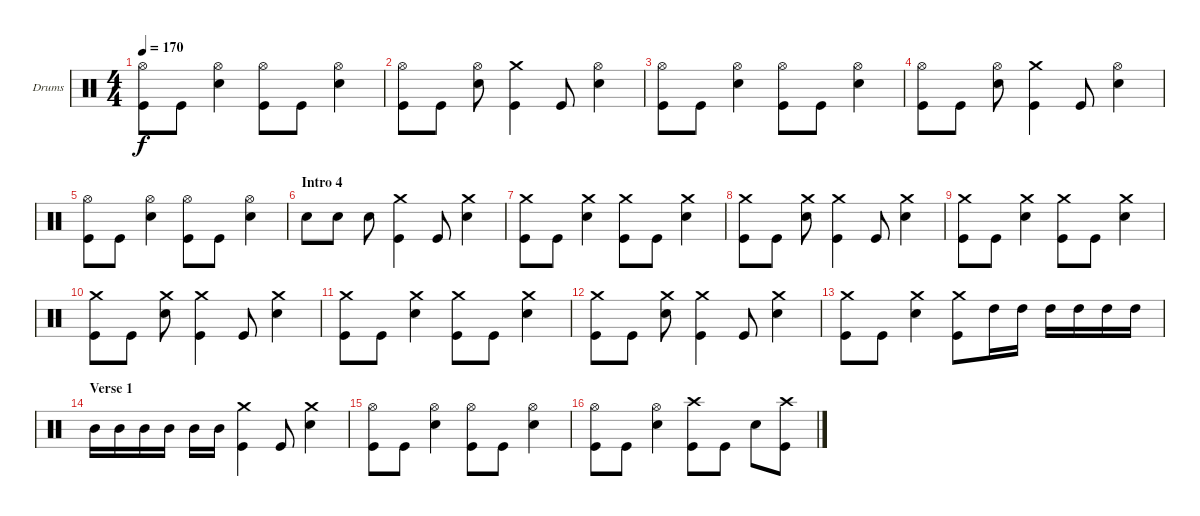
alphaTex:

\defaultSystemsLayout 4
\bracketExtendMode groupsimilarinstruments
\firstSystemTrackNameOrientation horizontal
\otherSystemsTrackNameOrientation horizontal
\track ("Jimmy \"The Hammer\" - Drums" "Drums") {instrument percussion}
\staff {score}
\articulation defaults
\ts (4 4)
\tempo 170
\clef neutral
\ks c
("Hi-Hat (open)" "Kick (hit)").8{dy f} "Kick (hit)".8 ("Snare (hit) 2" "Hi-Hat (open)").4 ("Hi-Hat (open)" "Kick (hit)").8 "Kick (hit)".8 ("Snare (hit) 2" "Hi-Hat (open)").4 |
("Hi-Hat (open)" "Kick (hit)").8 "Kick (hit)".8 ("Snare (hit) 2" "Hi-Hat (open)").8 ("Kick (hit)" "Crash medium (hit)").4 "Kick (hit)".8 ("Snare (hit) 2" "Hi-Hat (open)").4 |
("Hi-Hat (open)" "Kick (hit)").8 "Kick (hit)".8 ("Snare (hit) 2" "Hi-Hat (open)").4 ("Hi-Hat (open)" "Kick (hit)").8 "Kick (hit)".8 ("Snare (hit) 2" "Hi-Hat (open)").4 |
("Hi-Hat (open)" "Kick (hit)").8 "Kick (hit)".8 ("Snare (hit) 2" "Hi-Hat (open)").8 ("Kick (hit)" "Crash medium (hit)").4 "Kick (hit)".8 ("Snare (hit) 2" "Hi-Hat (open)").4 |
("Hi-Hat (open)" "Kick (hit)").8 "Kick (hit)".8 ("Snare (hit) 2" "Hi-Hat (open)").4 ("Hi-Hat (open)" "Kick (hit)").8 "Kick (hit)".8 ("Snare (hit) 2" "Hi-Hat (open)").4 |
\section ("" "Intro 4")
"Snare (hit) 2".8 "Snare (hit) 2".8 "Snare (hit) 2".8 ("Kick (hit)" "Crash medium (hit)").4 "Kick (hit)".8 ("Snare (hit) 2" "Crash medium (hit)").4 |
("Kick (hit)" "Crash medium (hit)").8 "Kick (hit)".8 ("Snare (hit) 2" "Crash medium (hit)").4 ("Kick (hit)" "Crash medium (hit)").8 "Kick (hit)".8 ("Snare (hit) 2" "Crash medium (hit)").4 |
("Kick (hit)" "Crash medium (hit)").8 "Kick (hit)".8 ("Snare (hit) 2" "Crash medium (hit)").8 ("Kick (hit)" "Crash medium (hit)").4 "Kick (hit)".8 ("Snare (hit) 2" "Crash medium (hit)").4 |
("Kick (hit)" "Crash medium (hit)").8 "Kick (hit)".8 ("Snare (hit) 2" "Crash medium (hit)").4 ("Kick (hit)" "Crash medium (hit)").8 "Kick (hit)".8 ("Snare (hit) 2" "Crash medium (hit)").4 |
("Kick (hit)" "Crash medium (hit)").8 "Kick (hit)".8 ("Snare (hit) 2" "Crash medium (hit)").8 ("Kick (hit)" "Crash medium (hit)").4 "Kick (hit)".8 ("Snare (hit) 2" "Crash medium (hit)").4 |
("Kick (hit)" "Crash medium (hit)").8 "Kick (hit)".8 ("Snare (hit) 2" "Crash medium (hit)").4 ("Kick (hit)" "Crash medium (hit)").8 "Kick (hit)".8 ("Snare (hit) 2" "Crash medium (hit)").4 |
("Kick (hit)" "Crash medium (hit)").8 "Kick (hit)".8 ("Snare (hit) 2" "Crash medium (hit)").8 ("Kick (hit)" "Crash medium (hit)").4 "Kick (hit)".8 ("Snare (hit) 2" "Crash medium (hit)").4 |
("Kick (hit)" "Crash medium (hit)").8 "Kick (hit)".8 ("Snare (hit) 2" "Crash medium (hit)").4 ("Kick (hit)" "Crash medium (hit)").8 "High Tom (hit)".16 "High Tom (hit)".16 "High Tom (hit)".16 "High Tom (hit)".16 "High Tom (hit)".16 "High Tom (hit)".16 |
\section ("" "Verse 1")
"Mid Tom (hit)".16 "Mid Tom (hit)".16 "Mid Tom (hit)".16 "Mid Tom (hit)".16 "Mid Tom (hit)".16 "Mid Tom (hit)".16 ("Kick (hit)" "Crash medium (hit)").4 "Kick (hit)".8 ("Snare (hit) 2" "Crash medium (hit)").4 |
("Hi-Hat (open)" "Kick (hit)").8 "Kick (hit)".8 ("Hi-Hat (open)" "Snare (hit) 2").4 ("Hi-Hat (open)" "Kick (hit)").8 "Kick (hit)".8 ("Hi-Hat (open)" "Snare (hit) 2").4 |
("Hi-Hat (open)" "Kick (hit)").8 "Kick (hit)".8 ("Hi-Hat (open)" "Snare (hit) 2").4 ("Kick (hit)" "Crash high (hit)").8 "Kick (hit)".8 "Snare (hit) 2".8 ("Kick (hit)" "Crash high (hit)").8
